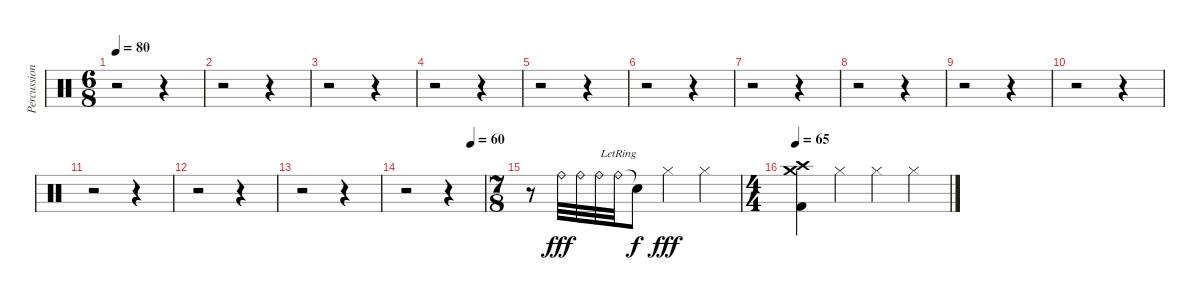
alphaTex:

\track ("Percussion" "Percussion") {instrument percussion}
\staff {score}
\articulation defaults
\ts (6 8)
\tempo 80
\clef neutral
\ks c
r.2{dy fff} r.4 |
r.2 r.4 |
r.2 r.4 |
r.2 r.4 |
r.2 r.4 |
r.2 r.4 |
r.2 r.4 |
r.2 r.4 |
r.2 r.4 |
r.2 r.4 |
r.2 r.4 |
r.2 r.4 |
r.2 r.4 |
\tempo (60 0.8333333333333334)
r.2 r.4 |
\ts (7 8)
r.8 "Ride (bell)".32 "Ride (bell)".32 "Ride (bell)".32 "Ride (bell)"{lr}.32 "Snare (hit)"{t}.8{dy f} "Hi-Hat (closed)".4{dy fff} "Hi-Hat (closed)".4 |
\ts (4 4)
\tempo 65
("Crash medium (hit)" "Crash high (hit)" "Kick (hit) 2").4 "Hi-Hat (closed)".4 "Hi-Hat (closed)".4 "Hi-Hat (closed)".4
